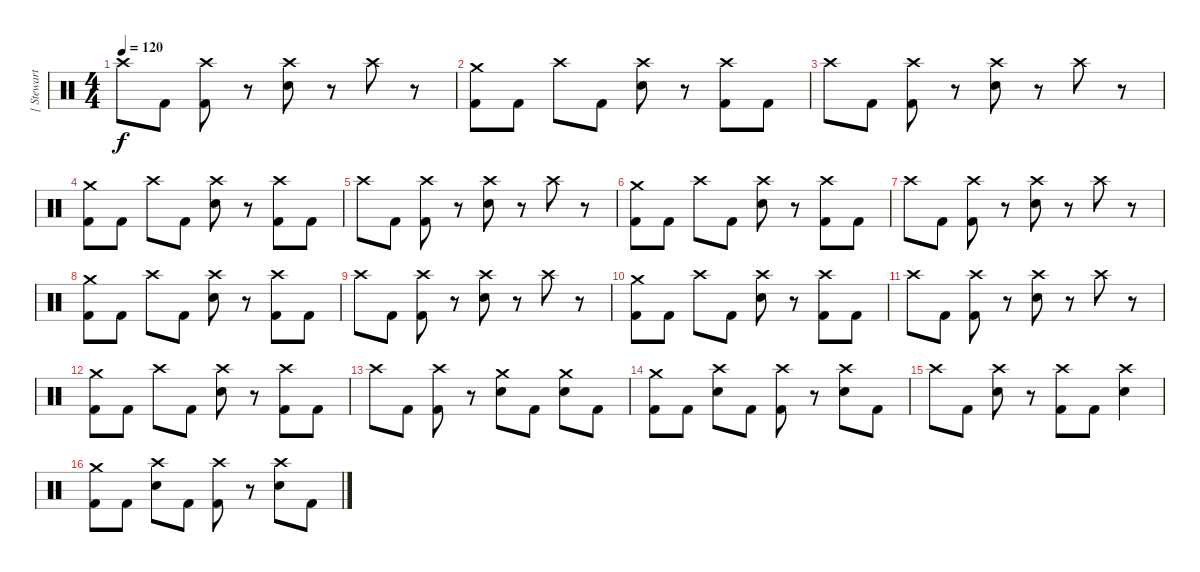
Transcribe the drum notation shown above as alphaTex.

\track ("[ Stewart ] " "[ Stewart ") {instrument percussion}
\staff {score}
\articulation defaults
\ts (4 4)
\tempo 120
\clef neutral
\ks c "Crash high (hit)".8{dy f} "Kick (hit) 2".8
("Kick (hit) 2" "Crash high (hit)").8 r.8 ("Electric Snare (hit)" "Crash high (hit)").8 r.8 "Crash high (hit)".8 r.8 |
("Kick (hit) 2" "Crash medium (hit)").8 "Kick (hit) 2".8 "Crash high (hit)".8 "Kick (hit) 2".8 ("Electric Snare (hit)" "Crash high (hit)").8 r.8 ("Kick (hit) 2" "Crash high (hit)").8 "Kick (hit) 2".8 |
"Crash high (hit)".8 "Kick (hit) 2".8 ("Kick (hit) 2" "Crash high (hit)").8 r.8 ("Electric Snare (hit)" "Crash high (hit)").8 r.8 "Crash high (hit)".8 r.8 |
("Kick (hit) 2" "Crash medium (hit)").8 "Kick (hit) 2".8 "Crash high (hit)".8 "Kick (hit) 2".8 ("Electric Snare (hit)" "Crash high (hit)").8 r.8 ("Kick (hit) 2" "Crash high (hit)").8 "Kick (hit) 2".8 |
"Crash high (hit)".8 "Kick (hit) 2".8 ("Kick (hit) 2" "Crash high (hit)").8 r.8 ("Electric Snare (hit)" "Crash high (hit)").8 r.8 "Crash high (hit)".8 r.8 |
("Kick (hit) 2" "Crash medium (hit)").8 "Kick (hit) 2".8 "Crash high (hit)".8 "Kick (hit) 2".8 ("Electric Snare (hit)" "Crash high (hit)").8 r.8 ("Kick (hit) 2" "Crash high (hit)").8 "Kick (hit) 2".8 |
"Crash high (hit)".8 "Kick (hit) 2".8 ("Kick (hit) 2" "Crash high (hit)").8 r.8 ("Electric Snare (hit)" "Crash high (hit)").8 r.8 "Crash high (hit)".8 r.8 |
("Kick (hit) 2" "Crash medium (hit)").8 "Kick (hit) 2".8 "Crash high (hit)".8 "Kick (hit) 2".8 ("Electric Snare (hit)" "Crash high (hit)").8 r.8 ("Kick (hit) 2" "Crash high (hit)").8 "Kick (hit) 2".8 |
"Crash high (hit)".8 "Kick (hit) 2".8 ("Kick (hit) 2" "Crash high (hit)").8 r.8 ("Electric Snare (hit)" "Crash high (hit)").8 r.8 "Crash high (hit)".8 r.8 |
("Kick (hit) 2" "Crash medium (hit)").8 "Kick (hit) 2".8 "Crash high (hit)".8 "Kick (hit) 2".8 ("Electric Snare (hit)" "Crash high (hit)").8 r.8 ("Kick (hit) 2" "Crash high (hit)").8 "Kick (hit) 2".8 |
"Crash high (hit)".8 "Kick (hit) 2".8 ("Kick (hit) 2" "Crash high (hit)").8 r.8 ("Electric Snare (hit)" "Crash high (hit)").8 r.8 "Crash high (hit)".8 r.8 |
("Kick (hit) 2" "Crash medium (hit)").8 "Kick (hit) 2".8 "Crash high (hit)".8 "Kick (hit) 2".8 ("Electric Snare (hit)" "Crash high (hit)").8 r.8 ("Kick (hit) 2" "Crash high (hit)").8 "Kick (hit) 2".8 |
"Crash high (hit)".8 "Kick (hit) 2".8 ("Kick (hit) 2" "Crash high (hit)").8 r.8 ("Electric Snare (hit)" "Crash medium (hit)").8 "Kick (hit) 2".8 ("Electric Snare (hit)" "Crash medium (hit)").8 "Kick (hit) 2".8 |
("Kick (hit) 2" "Crash medium (hit)").8 "Kick (hit) 2".8 ("Electric Snare (hit)" "Crash high (hit)").8 "Kick (hit) 2".8 ("Kick (hit) 2" "Crash high (hit)").8 r.8 ("Electric Snare (hit)" "Crash high (hit)").8 "Kick (hit) 2".8 |
"Crash high (hit)".8 "Kick (hit) 2".8 ("Electric Snare (hit)" "Crash high (hit)").8 r.8 ("Kick (hit) 2" "Crash high (hit)").8 "Kick (hit) 2".8 ("Electric Snare (hit)" "Crash high (hit)").4 |
("Kick (hit) 2" "Crash medium (hit)").8 "Kick (hit) 2".8 ("Electric Snare (hit)" "Crash high (hit)").8 "Kick (hit) 2".8 ("Kick (hit) 2" "Crash high (hit)").8 r.8 ("Electric Snare (hit)" "Crash high (hit)").8 "Kick (hit) 2".8
